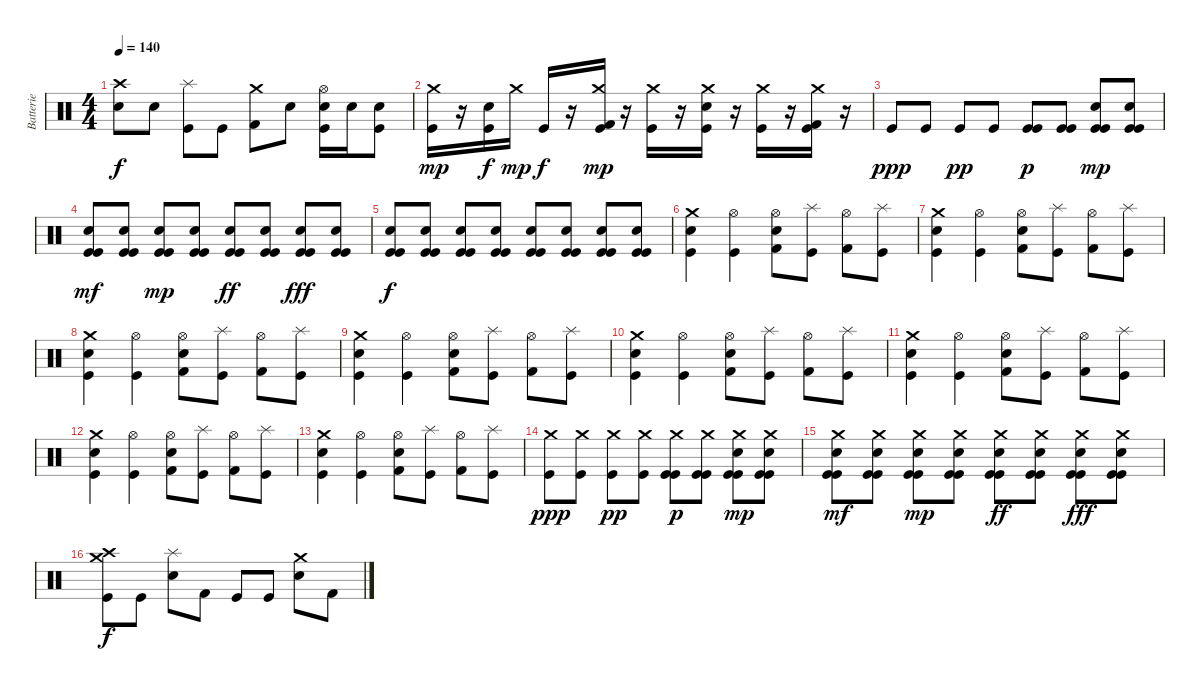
\track ("Batterie" "Batterie") {instrument percussion}
\staff {score}
\articulation defaults
\ts (4 4)
\tempo 140
\clef neutral
\ks c
("Crash high (hit)" "Electric Snare (hit)").8{dy f} "Electric Snare (hit)".8 ("Splash (hit)" "Kick (hit)").8 "Kick (hit)".8 ("Crash medium (hit)" "Kick (hit) 2").8 "Electric Snare (hit)".8 ("Hi-Hat (open)" "Electric Snare (hit)" "Kick (hit)").16 "Electric Snare (hit)".16 ("Electric Snare (hit)" "Kick (hit)").8 |
("Crash medium (hit)" "Kick (hit)").16{dy mp} r.16 ("Electric Snare (hit)" "Kick (hit)").16{dy f} "Crash medium (hit)".16{dy mp} "Kick (hit)".16{dy f} r.16 ("Crash medium (hit)" "Kick (hit) 2" "Kick (hit)").16{dy mp} r.16 ("Crash medium (hit)" "Kick (hit)").16 r.16 ("Crash medium (hit)" "Electric Snare (hit)" "Kick (hit)").16 r.16 ("Crash medium (hit)" "Kick (hit)").16 r.16 ("Crash medium (hit)" "Kick (hit) 2" "Kick (hit)").16 r.16 |
"Kick (hit)".8{dy ppp} "Kick (hit)".8 "Kick (hit)".8{dy pp} "Kick (hit)".8 ("Kick (hit)" "Kick (hit)").8{dy p} ("Kick (hit)" "Kick (hit)").8 ("Electric Snare (hit)" "Kick (hit)" "Kick (hit)").8{dy mp} ("Electric Snare (hit)" "Kick (hit)" "Kick (hit)").8 |
("Electric Snare (hit)" "Kick (hit)" "Kick (hit)").8{dy mf} ("Electric Snare (hit)" "Kick (hit)" "Kick (hit)").8 ("Electric Snare (hit)" "Kick (hit)" "Kick (hit)").8{dy mp} ("Electric Snare (hit)" "Kick (hit)" "Kick (hit)").8 ("Electric Snare (hit)" "Kick (hit)" "Kick (hit)").8{dy ff} ("Electric Snare (hit)" "Kick (hit)" "Kick (hit)").8 ("Electric Snare (hit)" "Kick (hit)" "Kick (hit)").8{dy fff} ("Electric Snare (hit)" "Kick (hit)" "Kick (hit)").8 |
("Electric Snare (hit)" "Kick (hit)" "Kick (hit)").8{dy f} ("Electric Snare (hit)" "Kick (hit)" "Kick (hit)").8 ("Electric Snare (hit)" "Kick (hit)" "Kick (hit)").8 ("Electric Snare (hit)" "Kick (hit)" "Kick (hit)").8 ("Electric Snare (hit)" "Kick (hit)" "Kick (hit)").8 ("Electric Snare (hit)" "Kick (hit)" "Kick (hit)").8 ("Electric Snare (hit)" "Kick (hit)" "Kick (hit)").8 ("Electric Snare (hit)" "Kick (hit)" "Kick (hit)").8 |
("Crash medium (hit)" "Electric Snare (hit)" "Kick (hit)").4 ("Hi-Hat (open)" "Kick (hit)").4 ("Hi-Hat (open)" "Electric Snare (hit)" "Kick (hit) 2").8 ("Splash (hit)" "Kick (hit)").8 ("Hi-Hat (open)" "Kick (hit) 2").8 ("Splash (hit)" "Kick (hit)").8 |
("Crash medium (hit)" "Electric Snare (hit)" "Kick (hit)").4 ("Hi-Hat (open)" "Kick (hit)").4 ("Hi-Hat (open)" "Electric Snare (hit)" "Kick (hit) 2").8 ("Splash (hit)" "Kick (hit)").8 ("Hi-Hat (open)" "Kick (hit) 2").8 ("Splash (hit)" "Kick (hit)").8 |
("Crash medium (hit)" "Electric Snare (hit)" "Kick (hit)").4 ("Hi-Hat (open)" "Kick (hit)").4 ("Hi-Hat (open)" "Electric Snare (hit)" "Kick (hit) 2").8 ("Splash (hit)" "Kick (hit)").8 ("Hi-Hat (open)" "Kick (hit) 2").8 ("Splash (hit)" "Kick (hit)").8 |
("Crash medium (hit)" "Electric Snare (hit)" "Kick (hit)").4 ("Hi-Hat (open)" "Kick (hit)").4 ("Hi-Hat (open)" "Electric Snare (hit)" "Kick (hit) 2").8 ("Splash (hit)" "Kick (hit)").8 ("Hi-Hat (open)" "Kick (hit) 2").8 ("Splash (hit)" "Kick (hit)").8 |
("Crash medium (hit)" "Electric Snare (hit)" "Kick (hit)").4 ("Hi-Hat (open)" "Kick (hit)").4 ("Hi-Hat (open)" "Electric Snare (hit)" "Kick (hit) 2").8 ("Splash (hit)" "Kick (hit)").8 ("Hi-Hat (open)" "Kick (hit) 2").8 ("Splash (hit)" "Kick (hit)").8 |
("Crash medium (hit)" "Electric Snare (hit)" "Kick (hit)").4 ("Hi-Hat (open)" "Kick (hit)").4 ("Hi-Hat (open)" "Electric Snare (hit)" "Kick (hit) 2").8 ("Splash (hit)" "Kick (hit)").8 ("Hi-Hat (open)" "Kick (hit) 2").8 ("Splash (hit)" "Kick (hit)").8 |
("Crash medium (hit)" "Electric Snare (hit)" "Kick (hit)").4 ("Hi-Hat (open)" "Kick (hit)").4 ("Hi-Hat (open)" "Electric Snare (hit)" "Kick (hit) 2").8 ("Splash (hit)" "Kick (hit)").8 ("Hi-Hat (open)" "Kick (hit) 2").8 ("Splash (hit)" "Kick (hit)").8 |
("Crash medium (hit)" "Electric Snare (hit)" "Kick (hit)").4 ("Hi-Hat (open)" "Kick (hit)").4 ("Hi-Hat (open)" "Electric Snare (hit)" "Kick (hit) 2").8 ("Splash (hit)" "Kick (hit)").8 ("Hi-Hat (open)" "Kick (hit) 2").8 ("Splash (hit)" "Kick (hit)").8 |
("Crash medium (hit)" "Kick (hit)").8{dy ppp} ("Crash medium (hit)" "Kick (hit)").8 ("Crash medium (hit)" "Kick (hit)").8{dy pp} ("Crash medium (hit)" "Kick (hit)").8 ("Crash medium (hit)" "Kick (hit)" "Kick (hit)").8{dy p} ("Crash medium (hit)" "Kick (hit)" "Kick (hit)").8 ("Crash medium (hit)" "Electric Snare (hit)" "Kick (hit)" "Kick (hit)").8{dy mp} ("Crash medium (hit)" "Electric Snare (hit)" "Kick (hit)" "Kick (hit)").8 |
("Crash medium (hit)" "Electric Snare (hit)" "Kick (hit)" "Kick (hit)").8{dy mf} ("Crash medium (hit)" "Electric Snare (hit)" "Kick (hit)" "Kick (hit)").8 ("Crash medium (hit)" "Electric Snare (hit)" "Kick (hit)" "Kick (hit)").8{dy mp} ("Crash medium (hit)" "Electric Snare (hit)" "Kick (hit)" "Kick (hit)").8 ("Crash medium (hit)" "Electric Snare (hit)" "Kick (hit)" "Kick (hit)").8{dy ff} ("Crash medium (hit)" "Electric Snare (hit)" "Kick (hit)" "Kick (hit)").8 ("Crash medium (hit)" "Electric Snare (hit)" "Kick (hit)" "Kick (hit)").8{dy fff} ("Crash medium (hit)" "Electric Snare (hit)" "Kick (hit)" "Kick (hit)").8 |
("Crash medium (hit)" "Crash high (hit)" "Kick (hit)").8{dy f} "Kick (hit)".8 ("Splash (hit)" "Electric Snare (hit)").8 "Kick (hit) 2".8 "Kick (hit)".8 "Kick (hit)".8 ("Crash medium (hit)" "Snare (hit) 2").8 "Kick (hit) 2".8
